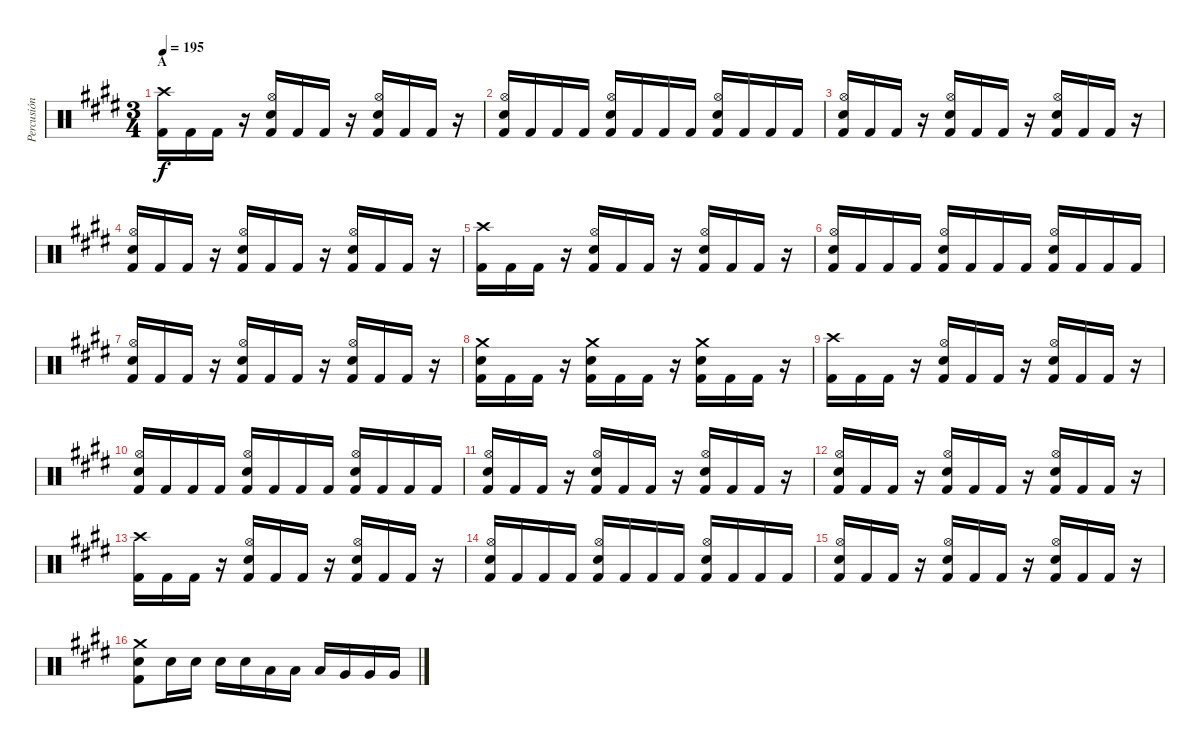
\track ("Percusión" "Percusión") {instrument percussion}
\staff {score}
\articulation defaults
\ts (3 4)
\section ("" "A")
\tempo 195
\clef neutral
\ks e
("Crash high (hit)" "Kick (hit) 2").16{dy f} "Kick (hit) 2".16 "Kick (hit) 2".16 r.16 ("Hi-Hat (open)" "Electric Snare (hit)" "Kick (hit) 2").16 "Kick (hit) 2".16 "Kick (hit) 2".16 r.16 ("Hi-Hat (open)" "Electric Snare (hit)" "Kick (hit) 2").16 "Kick (hit) 2".16 "Kick (hit) 2".16 r.16 |
("Hi-Hat (open)" "Electric Snare (hit)" "Kick (hit) 2").16 "Kick (hit) 2".16 "Kick (hit) 2".16 "Kick (hit) 2".16 ("Hi-Hat (open)" "Electric Snare (hit)" "Kick (hit) 2").16 "Kick (hit) 2".16 "Kick (hit) 2".16 "Kick (hit) 2".16 ("Hi-Hat (open)" "Electric Snare (hit)" "Kick (hit) 2").16 "Kick (hit) 2".16 "Kick (hit) 2".16 "Kick (hit) 2".16 |
("Hi-Hat (open)" "Electric Snare (hit)" "Kick (hit) 2").16 "Kick (hit) 2".16 "Kick (hit) 2".16 r.16 ("Hi-Hat (open)" "Electric Snare (hit)" "Kick (hit) 2").16 "Kick (hit) 2".16 "Kick (hit) 2".16 r.16 ("Hi-Hat (open)" "Electric Snare (hit)" "Kick (hit) 2").16 "Kick (hit) 2".16 "Kick (hit) 2".16 r.16 |
("Hi-Hat (open)" "Electric Snare (hit)" "Kick (hit) 2").16 "Kick (hit) 2".16 "Kick (hit) 2".16 r.16 ("Hi-Hat (open)" "Electric Snare (hit)" "Kick (hit) 2").16 "Kick (hit) 2".16 "Kick (hit) 2".16 r.16 ("Hi-Hat (open)" "Electric Snare (hit)" "Kick (hit) 2").16 "Kick (hit) 2".16 "Kick (hit) 2".16 r.16 |
("Crash high (hit)" "Kick (hit) 2").16 "Kick (hit) 2".16 "Kick (hit) 2".16 r.16 ("Hi-Hat (open)" "Electric Snare (hit)" "Kick (hit) 2").16 "Kick (hit) 2".16 "Kick (hit) 2".16 r.16 ("Hi-Hat (open)" "Electric Snare (hit)" "Kick (hit) 2").16 "Kick (hit) 2".16 "Kick (hit) 2".16 r.16 |
("Hi-Hat (open)" "Electric Snare (hit)" "Kick (hit) 2").16 "Kick (hit) 2".16 "Kick (hit) 2".16 "Kick (hit) 2".16 ("Hi-Hat (open)" "Electric Snare (hit)" "Kick (hit) 2").16 "Kick (hit) 2".16 "Kick (hit) 2".16 "Kick (hit) 2".16 ("Hi-Hat (open)" "Electric Snare (hit)" "Kick (hit) 2").16 "Kick (hit) 2".16 "Kick (hit) 2".16 "Kick (hit) 2".16 |
("Hi-Hat (open)" "Electric Snare (hit)" "Kick (hit) 2").16 "Kick (hit) 2".16 "Kick (hit) 2".16 r.16 ("Hi-Hat (open)" "Electric Snare (hit)" "Kick (hit) 2").16 "Kick (hit) 2".16 "Kick (hit) 2".16 r.16 ("Hi-Hat (open)" "Electric Snare (hit)" "Kick (hit) 2").16 "Kick (hit) 2".16 "Kick (hit) 2".16 r.16 |
("Crash medium (hit)" "Electric Snare (hit)" "Kick (hit) 2").16 "Kick (hit) 2".16 "Kick (hit) 2".16 r.16 ("Crash medium (hit)" "Electric Snare (hit)" "Kick (hit) 2").16 "Kick (hit) 2".16 "Kick (hit) 2".16 r.16 ("Crash medium (hit)" "Electric Snare (hit)" "Kick (hit) 2").16 "Kick (hit) 2".16 "Kick (hit) 2".16 r.16 |
("Crash high (hit)" "Kick (hit) 2").16 "Kick (hit) 2".16 "Kick (hit) 2".16 r.16 ("Hi-Hat (open)" "Electric Snare (hit)" "Kick (hit) 2").16 "Kick (hit) 2".16 "Kick (hit) 2".16 r.16 ("Hi-Hat (open)" "Electric Snare (hit)" "Kick (hit) 2").16 "Kick (hit) 2".16 "Kick (hit) 2".16 r.16 |
("Hi-Hat (open)" "Electric Snare (hit)" "Kick (hit) 2").16 "Kick (hit) 2".16 "Kick (hit) 2".16 "Kick (hit) 2".16 ("Hi-Hat (open)" "Electric Snare (hit)" "Kick (hit) 2").16 "Kick (hit) 2".16 "Kick (hit) 2".16 "Kick (hit) 2".16 ("Hi-Hat (open)" "Electric Snare (hit)" "Kick (hit) 2").16 "Kick (hit) 2".16 "Kick (hit) 2".16 "Kick (hit) 2".16 |
("Hi-Hat (open)" "Electric Snare (hit)" "Kick (hit) 2").16 "Kick (hit) 2".16 "Kick (hit) 2".16 r.16 ("Hi-Hat (open)" "Electric Snare (hit)" "Kick (hit) 2").16 "Kick (hit) 2".16 "Kick (hit) 2".16 r.16 ("Hi-Hat (open)" "Electric Snare (hit)" "Kick (hit) 2").16 "Kick (hit) 2".16 "Kick (hit) 2".16 r.16 |
("Hi-Hat (open)" "Electric Snare (hit)" "Kick (hit) 2").16 "Kick (hit) 2".16 "Kick (hit) 2".16 r.16 ("Hi-Hat (open)" "Electric Snare (hit)" "Kick (hit) 2").16 "Kick (hit) 2".16 "Kick (hit) 2".16 r.16 ("Hi-Hat (open)" "Electric Snare (hit)" "Kick (hit) 2").16 "Kick (hit) 2".16 "Kick (hit) 2".16 r.16 |
("Crash high (hit)" "Kick (hit) 2").16 "Kick (hit) 2".16 "Kick (hit) 2".16 r.16 ("Hi-Hat (open)" "Electric Snare (hit)" "Kick (hit) 2").16 "Kick (hit) 2".16 "Kick (hit) 2".16 r.16 ("Hi-Hat (open)" "Electric Snare (hit)" "Kick (hit) 2").16 "Kick (hit) 2".16 "Kick (hit) 2".16 r.16 |
("Hi-Hat (open)" "Electric Snare (hit)" "Kick (hit) 2").16 "Kick (hit) 2".16 "Kick (hit) 2".16 "Kick (hit) 2".16 ("Hi-Hat (open)" "Electric Snare (hit)" "Kick (hit) 2").16 "Kick (hit) 2".16 "Kick (hit) 2".16 "Kick (hit) 2".16 ("Hi-Hat (open)" "Electric Snare (hit)" "Kick (hit) 2").16 "Kick (hit) 2".16 "Kick (hit) 2".16 "Kick (hit) 2".16 |
("Hi-Hat (open)" "Electric Snare (hit)" "Kick (hit) 2").16 "Kick (hit) 2".16 "Kick (hit) 2".16 r.16 ("Hi-Hat (open)" "Electric Snare (hit)" "Kick (hit) 2").16 "Kick (hit) 2".16 "Kick (hit) 2".16 r.16 ("Hi-Hat (open)" "Electric Snare (hit)" "Kick (hit) 2").16 "Kick (hit) 2".16 "Kick (hit) 2".16 r.16 |
("Crash medium (hit)" "Electric Snare (hit)" "Kick (hit) 2").8 "Electric Snare (hit)".16 "Electric Snare (hit)".16 "Electric Snare (hit)".16 "Electric Snare (hit)".16 "Low Tom (hit)".16 "Low Tom (hit)".16 "Low Tom (hit)".16 "Very Low Tom (hit)".16 "Very Low Tom (hit)".16 "Very Low Tom (hit)".16
